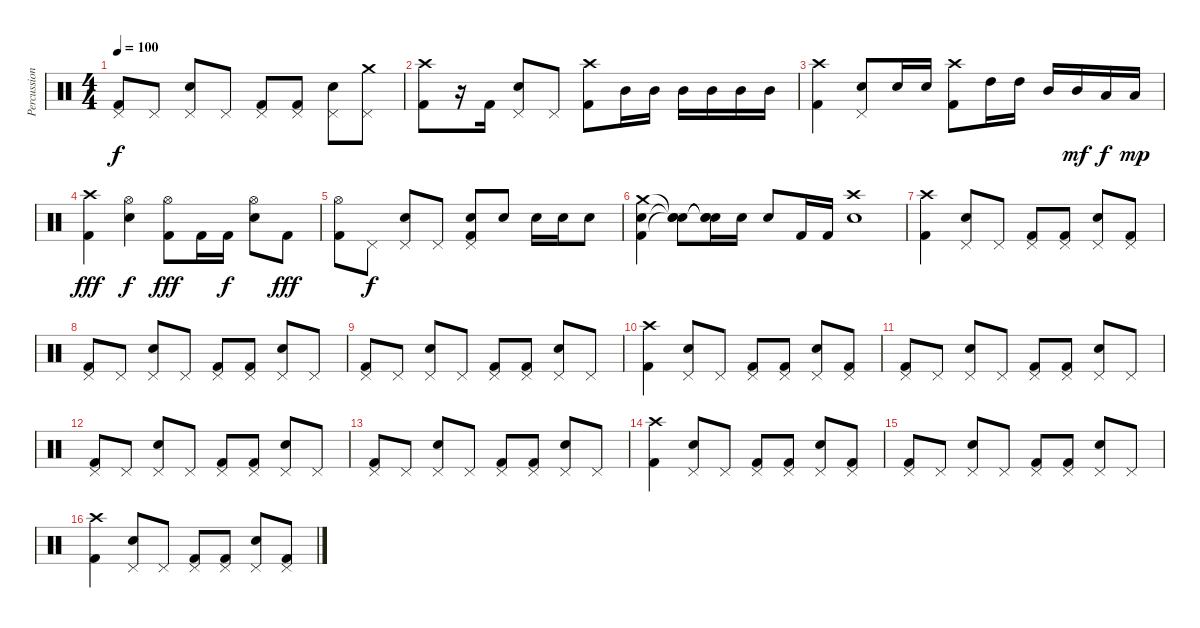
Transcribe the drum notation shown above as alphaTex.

\track ("Percussion" "Percussion") {instrument percussion}
\staff {score}
\articulation defaults
\ts (4 4)
\tempo 100
\clef neutral
\ks c
("Pedal Hi-Hat (hit)" "Kick (hit) 2").8{dy f} "Pedal Hi-Hat (hit)".8 ("Pedal Hi-Hat (hit)" "Snare (hit) 2").8 "Pedal Hi-Hat (hit)".8 ("Pedal Hi-Hat (hit)" "Kick (hit) 2").8 ("Pedal Hi-Hat (hit)" "Kick (hit) 2").8 ("Pedal Hi-Hat (hit)" "Snare (hit) 2").8 ("Pedal Hi-Hat (hit)" "Crash medium (hit)").8 |
("Crash high (hit)" "Kick (hit) 2").8 r.16 "Kick (hit) 2".16 ("Pedal Hi-Hat (hit)" "Snare (hit) 2").8 "Pedal Hi-Hat (hit)".8 ("Crash high (hit)" "Kick (hit) 2").8 "Mid Tom (hit)".16 "Mid Tom (hit)".16 "Mid Tom (hit)".16 "Mid Tom (hit)".16 "Mid Tom (hit)".16 "Mid Tom (hit)".16 |
("Crash high (hit)" "Kick (hit) 2").4 ("Pedal Hi-Hat (hit)" "Snare (hit) 2").8 "Snare (hit) 2".16 "Snare (hit) 2".16 ("Crash high (hit)" "Kick (hit) 2").8 "High Tom (hit)".16 "High Tom (hit)".16 "Mid Tom (hit)".16 "Mid Tom (hit)".16{dy mf} "Low Tom (hit)".16{dy f} "Low Tom (hit)".16{dy mp} |
("Crash high (hit)" "Kick (hit) 2").4{dy fff} ("Hi-Hat (open)" "Snare (hit) 2").4{dy f} ("Hi-Hat (open)" "Kick (hit) 2").8{dy fff} "Kick (hit) 2".16 "Kick (hit) 2".16{dy f} ("Hi-Hat (open)" "Snare (hit) 2").8 "Kick (hit) 2".8{dy fff} |
("Hi-Hat (open)" "Kick (hit) 2").8 "Pedal Hi-Hat (hit)".8{dy f} ("Pedal Hi-Hat (hit)" "Snare (hit) 2").8 "Pedal Hi-Hat (hit)".8 ("Pedal Hi-Hat (hit)" "Snare (hit) 2" "Kick (hit) 2").8 "Snare (hit) 2".8 "Snare (hit) 2".16 "Snare (hit) 2".16 "Snare (hit) 2".8 |
("Crash medium (hit)" "Snare (hit) 2" "Kick (hit) 2").4 ("Snare (hit)"{t} "Snare (hit)"{t} "Snare (hit)"{t}).8 ("Snare (hit)"{t} "Snare (hit)"{t} "Snare (hit)"{t}).16 "Snare (hit) 2".16 "Snare (hit) 2".8 "Kick (hit) 2".16 "Kick (hit) 2".16 ("Snare (hit) 2" "Crash high (hit)").1 |
("Crash high (hit)" "Kick (hit) 2").4 ("Pedal Hi-Hat (hit)" "Snare (hit) 2").8 "Pedal Hi-Hat (hit)".8 ("Pedal Hi-Hat (hit)" "Kick (hit) 2").8 ("Pedal Hi-Hat (hit)" "Kick (hit) 2").8 ("Pedal Hi-Hat (hit)" "Snare (hit) 2").8 ("Pedal Hi-Hat (hit)" "Kick (hit) 2").8 |
("Pedal Hi-Hat (hit)" "Kick (hit) 2").8 "Pedal Hi-Hat (hit)".8 ("Pedal Hi-Hat (hit)" "Snare (hit) 2").8 "Pedal Hi-Hat (hit)".8 ("Pedal Hi-Hat (hit)" "Kick (hit) 2").8 ("Pedal Hi-Hat (hit)" "Kick (hit) 2").8 ("Pedal Hi-Hat (hit)" "Snare (hit) 2").8 "Pedal Hi-Hat (hit)".8 |
("Pedal Hi-Hat (hit)" "Kick (hit) 2").8 "Pedal Hi-Hat (hit)".8 ("Pedal Hi-Hat (hit)" "Snare (hit) 2").8 "Pedal Hi-Hat (hit)".8 ("Pedal Hi-Hat (hit)" "Kick (hit) 2").8 ("Pedal Hi-Hat (hit)" "Kick (hit) 2").8 ("Pedal Hi-Hat (hit)" "Snare (hit) 2").8 "Pedal Hi-Hat (hit)".8 |
("Crash high (hit)" "Kick (hit) 2").4 ("Pedal Hi-Hat (hit)" "Snare (hit) 2").8 "Pedal Hi-Hat (hit)".8 ("Pedal Hi-Hat (hit)" "Kick (hit) 2").8 ("Pedal Hi-Hat (hit)" "Kick (hit) 2").8 ("Pedal Hi-Hat (hit)" "Snare (hit) 2").8 ("Pedal Hi-Hat (hit)" "Kick (hit) 2").8 |
("Pedal Hi-Hat (hit)" "Kick (hit) 2").8 "Pedal Hi-Hat (hit)".8 ("Pedal Hi-Hat (hit)" "Snare (hit) 2").8 "Pedal Hi-Hat (hit)".8 ("Pedal Hi-Hat (hit)" "Kick (hit) 2").8 ("Pedal Hi-Hat (hit)" "Kick (hit) 2").8 ("Pedal Hi-Hat (hit)" "Snare (hit) 2").8 "Pedal Hi-Hat (hit)".8 |
("Pedal Hi-Hat (hit)" "Kick (hit) 2").8 "Pedal Hi-Hat (hit)".8 ("Pedal Hi-Hat (hit)" "Snare (hit) 2").8 "Pedal Hi-Hat (hit)".8 ("Pedal Hi-Hat (hit)" "Kick (hit) 2").8 ("Pedal Hi-Hat (hit)" "Kick (hit) 2").8 ("Pedal Hi-Hat (hit)" "Snare (hit) 2").8 "Pedal Hi-Hat (hit)".8 |
("Pedal Hi-Hat (hit)" "Kick (hit) 2").8 "Pedal Hi-Hat (hit)".8 ("Pedal Hi-Hat (hit)" "Snare (hit) 2").8 "Pedal Hi-Hat (hit)".8 ("Pedal Hi-Hat (hit)" "Kick (hit) 2").8 ("Pedal Hi-Hat (hit)" "Kick (hit) 2").8 ("Pedal Hi-Hat (hit)" "Snare (hit) 2").8 "Pedal Hi-Hat (hit)".8 |
("Crash high (hit)" "Kick (hit) 2").4 ("Pedal Hi-Hat (hit)" "Snare (hit) 2").8 "Pedal Hi-Hat (hit)".8 ("Pedal Hi-Hat (hit)" "Kick (hit) 2").8 ("Pedal Hi-Hat (hit)" "Kick (hit) 2").8 ("Pedal Hi-Hat (hit)" "Snare (hit) 2").8 ("Pedal Hi-Hat (hit)" "Kick (hit) 2").8 |
("Pedal Hi-Hat (hit)" "Kick (hit) 2").8 "Pedal Hi-Hat (hit)".8 ("Pedal Hi-Hat (hit)" "Snare (hit) 2").8 "Pedal Hi-Hat (hit)".8 ("Pedal Hi-Hat (hit)" "Kick (hit) 2").8 ("Pedal Hi-Hat (hit)" "Kick (hit) 2").8 ("Pedal Hi-Hat (hit)" "Snare (hit) 2").8 "Pedal Hi-Hat (hit)".8 |
("Crash high (hit)" "Kick (hit) 2").4 ("Pedal Hi-Hat (hit)" "Snare (hit) 2").8 "Pedal Hi-Hat (hit)".8 ("Pedal Hi-Hat (hit)" "Kick (hit) 2").8 ("Pedal Hi-Hat (hit)" "Kick (hit) 2").8 ("Pedal Hi-Hat (hit)" "Snare (hit) 2").8 ("Pedal Hi-Hat (hit)" "Kick (hit) 2").8
